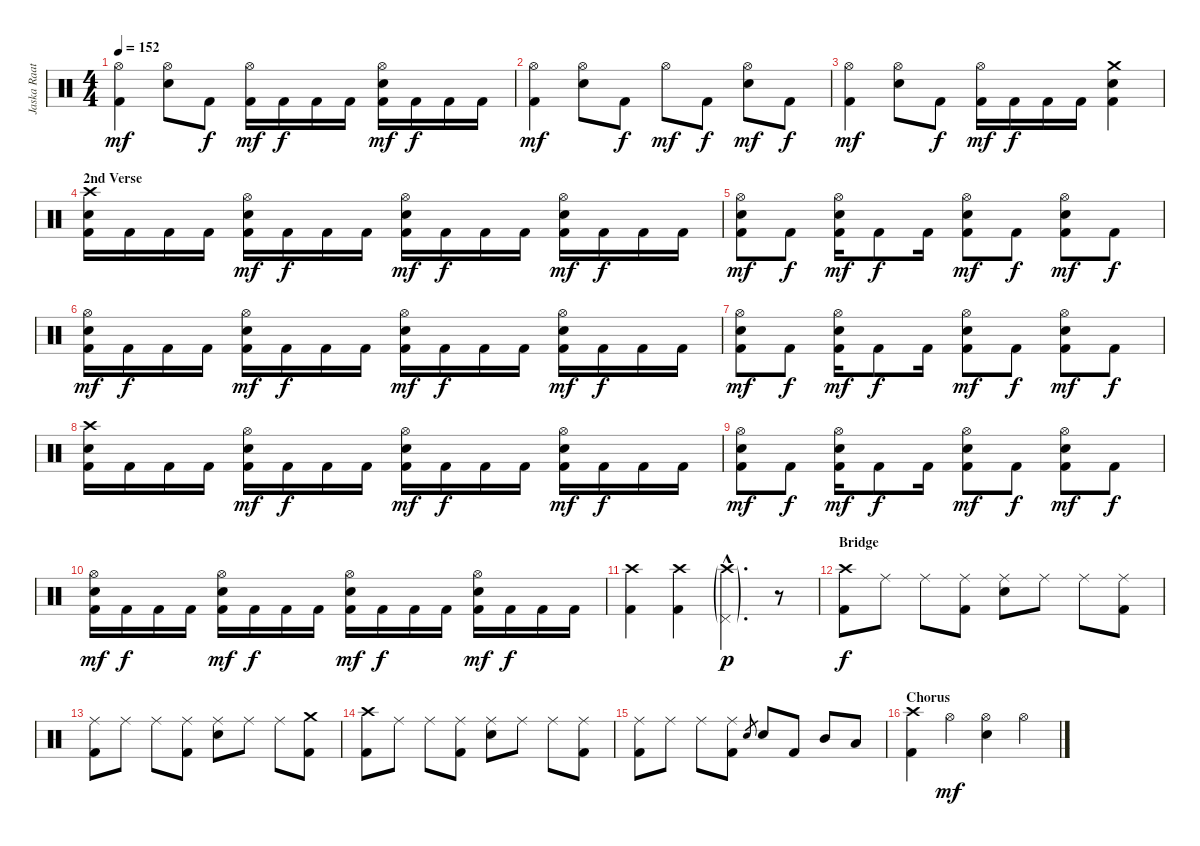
\track ("Jaska Raatikainen" "Jaska Raat") {instrument percussion}
\staff {score}
\articulation defaults
\ts (4 4)
\tempo 152
\clef neutral
\ks c
("Hi-Hat (open)" "Kick (hit) 2").4{dy mf} ("Hi-Hat (open)" "Electric Snare (hit)").8 "Kick (hit) 2".8{dy f} ("Hi-Hat (open)" "Kick (hit) 2").16{dy mf} "Kick (hit) 2".16{dy f} "Kick (hit) 2".16 "Kick (hit) 2".16 ("Hi-Hat (open)" "Electric Snare (hit)" "Kick (hit) 2").16{dy mf} "Kick (hit) 2".16{dy f} "Kick (hit) 2".16 "Kick (hit) 2".16 |
("Hi-Hat (open)" "Kick (hit) 2").4{dy mf} ("Hi-Hat (open)" "Electric Snare (hit)").8 "Kick (hit) 2".8{dy f} "Hi-Hat (open)".8{dy mf} "Kick (hit) 2".8{dy f} ("Hi-Hat (open)" "Electric Snare (hit)").8{dy mf} "Kick (hit) 2".8{dy f} |
("Hi-Hat (open)" "Kick (hit) 2").4{dy mf} ("Hi-Hat (open)" "Electric Snare (hit)").8 "Kick (hit) 2".8{dy f} ("Hi-Hat (open)" "Kick (hit) 2").16{dy mf} "Kick (hit) 2".16{dy f} "Kick (hit) 2".16 "Kick (hit) 2".16 ("Crash medium (hit)" "Electric Snare (hit)" "Kick (hit) 2").4 |
\section ("" "2nd Verse")
("Crash high (hit)" "Electric Snare (hit)" "Kick (hit) 2").16 "Kick (hit) 2".16 "Kick (hit) 2".16 "Kick (hit) 2".16 ("Hi-Hat (open)" "Electric Snare (hit)" "Kick (hit) 2").16{dy mf} "Kick (hit) 2".16{dy f} "Kick (hit) 2".16 "Kick (hit) 2".16 ("Hi-Hat (open)" "Electric Snare (hit)" "Kick (hit) 2").16{dy mf} "Kick (hit) 2".16{dy f} "Kick (hit) 2".16 "Kick (hit) 2".16 ("Hi-Hat (open)" "Electric Snare (hit)" "Kick (hit) 2").16{dy mf} "Kick (hit) 2".16{dy f} "Kick (hit) 2".16 "Kick (hit) 2".16 |
("Hi-Hat (open)" "Electric Snare (hit)" "Kick (hit) 2").8{dy mf} "Kick (hit) 2".8{dy f} ("Hi-Hat (open)" "Electric Snare (hit)" "Kick (hit) 2").16{dy mf} "Kick (hit) 2".8{dy f} "Kick (hit) 2".16 ("Hi-Hat (open)" "Electric Snare (hit)" "Kick (hit) 2").8{dy mf} "Kick (hit) 2".8{dy f} ("Hi-Hat (open)" "Electric Snare (hit)" "Kick (hit) 2").8{dy mf} "Kick (hit) 2".8{dy f} |
("Hi-Hat (open)" "Electric Snare (hit)" "Kick (hit) 2").16{dy mf} "Kick (hit) 2".16{dy f} "Kick (hit) 2".16 "Kick (hit) 2".16 ("Hi-Hat (open)" "Electric Snare (hit)" "Kick (hit) 2").16{dy mf} "Kick (hit) 2".16{dy f} "Kick (hit) 2".16 "Kick (hit) 2".16 ("Hi-Hat (open)" "Electric Snare (hit)" "Kick (hit) 2").16{dy mf} "Kick (hit) 2".16{dy f} "Kick (hit) 2".16 "Kick (hit) 2".16 ("Hi-Hat (open)" "Electric Snare (hit)" "Kick (hit) 2").16{dy mf} "Kick (hit) 2".16{dy f} "Kick (hit) 2".16 "Kick (hit) 2".16 |
("Hi-Hat (open)" "Electric Snare (hit)" "Kick (hit) 2").8{dy mf} "Kick (hit) 2".8{dy f} ("Hi-Hat (open)" "Electric Snare (hit)" "Kick (hit) 2").16{dy mf} "Kick (hit) 2".8{dy f} "Kick (hit) 2".16 ("Hi-Hat (open)" "Electric Snare (hit)" "Kick (hit) 2").8{dy mf} "Kick (hit) 2".8{dy f} ("Hi-Hat (open)" "Electric Snare (hit)" "Kick (hit) 2").8{dy mf} "Kick (hit) 2".8{dy f} |
("Crash high (hit)" "Electric Snare (hit)" "Kick (hit) 2").16 "Kick (hit) 2".16 "Kick (hit) 2".16 "Kick (hit) 2".16 ("Hi-Hat (open)" "Electric Snare (hit)" "Kick (hit) 2").16{dy mf} "Kick (hit) 2".16{dy f} "Kick (hit) 2".16 "Kick (hit) 2".16 ("Hi-Hat (open)" "Electric Snare (hit)" "Kick (hit) 2").16{dy mf} "Kick (hit) 2".16{dy f} "Kick (hit) 2".16 "Kick (hit) 2".16 ("Hi-Hat (open)" "Electric Snare (hit)" "Kick (hit) 2").16{dy mf} "Kick (hit) 2".16{dy f} "Kick (hit) 2".16 "Kick (hit) 2".16 |
("Hi-Hat (open)" "Electric Snare (hit)" "Kick (hit) 2").8{dy mf} "Kick (hit) 2".8{dy f} ("Hi-Hat (open)" "Electric Snare (hit)" "Kick (hit) 2").16{dy mf} "Kick (hit) 2".8{dy f} "Kick (hit) 2".16 ("Hi-Hat (open)" "Electric Snare (hit)" "Kick (hit) 2").8{dy mf} "Kick (hit) 2".8{dy f} ("Hi-Hat (open)" "Electric Snare (hit)" "Kick (hit) 2").8{dy mf} "Kick (hit) 2".8{dy f} |
("Hi-Hat (open)" "Electric Snare (hit)" "Kick (hit) 2").16{dy mf} "Kick (hit) 2".16{dy f} "Kick (hit) 2".16 "Kick (hit) 2".16 ("Hi-Hat (open)" "Electric Snare (hit)" "Kick (hit) 2").16{dy mf} "Kick (hit) 2".16{dy f} "Kick (hit) 2".16 "Kick (hit) 2".16 ("Hi-Hat (open)" "Electric Snare (hit)" "Kick (hit) 2").16{dy mf} "Kick (hit) 2".16{dy f} "Kick (hit) 2".16 "Kick (hit) 2".16 ("Hi-Hat (open)" "Electric Snare (hit)" "Kick (hit) 2").16{dy mf} "Kick (hit) 2".16{dy f} "Kick (hit) 2".16 "Kick (hit) 2".16 |
("Crash high (hit)" "Kick (hit) 2").4 ("Crash high (hit)" "Kick (hit) 2").4 ("Crash high (hit)"{g hac} "Pedal Hi-Hat (hit)"{g hac}).4{d dy p} r.8 |
\section ("" "Bridge")
("Crash high (hit)" "Kick (hit) 2").8{dy f} "Ride (middle)".8 "Ride (middle)".8 ("Ride (middle)" "Kick (hit) 2").8 ("Ride (middle)" "Electric Snare (hit)").8 "Ride (middle)".8 "Ride (middle)".8 ("Ride (middle)" "Kick (hit) 2").8 |
("Ride (middle)" "Kick (hit) 2").8 "Ride (middle)".8 "Ride (middle)".8 ("Ride (middle)" "Kick (hit) 2").8 ("Ride (middle)" "Electric Snare (hit)").8 "Ride (middle)".8 "Ride (middle)".8 ("Crash medium (hit)" "Kick (hit) 2").8 |
("Crash high (hit)" "Kick (hit) 2").8 "Ride (middle)".8 "Ride (middle)".8 ("Ride (middle)" "Kick (hit) 2").8 ("Ride (middle)" "Electric Snare (hit)").8 "Ride (middle)".8 "Ride (middle)".8 ("Ride (middle)" "Kick (hit) 2").8 |
("Ride (middle)" "Kick (hit) 2").8 "Ride (middle)".8 "Ride (middle)".8 ("Ride (middle)" "Kick (hit) 2").8 "Electric Snare (hit)".8{gr} "Electric Snare (hit)".8 "Kick (hit) 2".8 "Mid Tom (hit)".8 "Low Tom (hit)".8 |
\section ("" "Chorus")
("Crash high (hit)" "Kick (hit) 2").4 "Hi-Hat (open)".4{dy mf} ("Hi-Hat (open)" "Electric Snare (hit)").4 "Hi-Hat (open)".4
